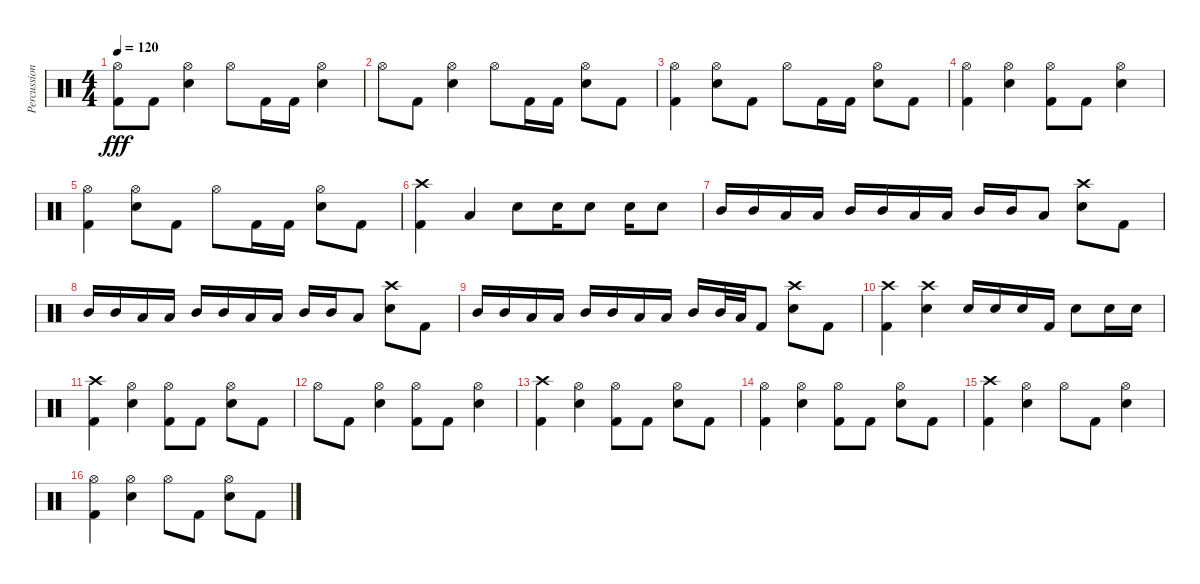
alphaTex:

\track ("Percussion" "Percussion") {instrument percussion}
\staff {score}
\articulation defaults
\ts (4 4)
\tempo 120
\clef neutral
\ks c
("Hi-Hat (open)" "Kick (hit) 2").8{dy fff} "Kick (hit) 2".8 ("Hi-Hat (open)" "Snare (hit) 2").4 "Hi-Hat (open)".8 "Kick (hit) 2".16 "Kick (hit) 2".16 ("Hi-Hat (open)" "Snare (hit) 2").4 |
"Hi-Hat (open)".8 "Kick (hit) 2".8 ("Hi-Hat (open)" "Snare (hit) 2").4 "Hi-Hat (open)".8 "Kick (hit) 2".16 "Kick (hit) 2".16 ("Hi-Hat (open)" "Snare (hit) 2").8 "Kick (hit) 2".8 |
("Hi-Hat (open)" "Kick (hit) 2").4 ("Hi-Hat (open)" "Snare (hit) 2").8 "Kick (hit) 2".8 "Hi-Hat (open)".8 "Kick (hit) 2".16 "Kick (hit) 2".16 ("Hi-Hat (open)" "Snare (hit) 2").8 "Kick (hit) 2".8 |
("Hi-Hat (open)" "Kick (hit) 2").4 ("Hi-Hat (open)" "Snare (hit) 2").4 ("Hi-Hat (open)" "Kick (hit) 2").8 "Kick (hit) 2".8 ("Hi-Hat (open)" "Snare (hit) 2").4 |
("Hi-Hat (open)" "Kick (hit) 2").4 ("Hi-Hat (open)" "Snare (hit) 2").8 "Kick (hit) 2".8 "Hi-Hat (open)".8 "Kick (hit) 2".16 "Kick (hit) 2".16 ("Hi-Hat (open)" "Snare (hit) 2").8 "Kick (hit) 2".8 |
("Crash high (hit)" "Kick (hit) 2").4 "Low Tom (hit)".4 "Snare (hit) 2".8 "Snare (hit) 2".16 "Snare (hit) 2".8 "Snare (hit) 2".16 "Snare (hit) 2".8 |
"Mid Tom (hit)".16 "Mid Tom (hit)".16 "Low Tom (hit)".16 "Low Tom (hit)".16 "Mid Tom (hit)".16 "Mid Tom (hit)".16 "Low Tom (hit)".16 "Low Tom (hit)".16 "Mid Tom (hit)".16 "Mid Tom (hit)".16 "Low Tom (hit)".8 ("Crash high (hit)" "Snare (hit) 2").8 "Kick (hit) 2".8 |
"Mid Tom (hit)".16 "Mid Tom (hit)".16 "Low Tom (hit)".16 "Low Tom (hit)".16 "Mid Tom (hit)".16 "Mid Tom (hit)".16 "Low Tom (hit)".16 "Low Tom (hit)".16 "Mid Tom (hit)".16 "Mid Tom (hit)".16 "Low Tom (hit)".8 ("Crash high (hit)" "Snare (hit) 2").8 "Kick (hit) 2".8 |
"Mid Tom (hit)".16 "Mid Tom (hit)".16 "Low Tom (hit)".16 "Low Tom (hit)".16 "Mid Tom (hit)".16 "Mid Tom (hit)".16 "Low Tom (hit)".16 "Low Tom (hit)".16 "Mid Tom (hit)".16 "Mid Tom (hit)".32 "Low Tom (hit)".32 "Kick (hit) 2".8 ("Crash high (hit)" "Snare (hit) 2").8 "Kick (hit) 2".8 |
("Crash high (hit)" "Kick (hit) 2").4 ("Crash high (hit)" "Snare (hit) 2").4 "Snare (hit) 2".16 "Snare (hit) 2".16 "Snare (hit) 2".16 "Kick (hit) 2".16 "Snare (hit) 2".8 "Snare (hit) 2".16 "Snare (hit) 2".16 |
("Crash high (hit)" "Kick (hit) 2").4 ("Hi-Hat (open)" "Snare (hit) 2").4 ("Hi-Hat (open)" "Kick (hit) 2").8 "Kick (hit) 2".8 ("Hi-Hat (open)" "Snare (hit) 2").8 "Kick (hit) 2".8 |
"Hi-Hat (open)".8 "Kick (hit) 2".8 ("Hi-Hat (open)" "Snare (hit) 2").4 ("Hi-Hat (open)" "Kick (hit) 2").8 "Kick (hit) 2".8 ("Hi-Hat (open)" "Snare (hit) 2").4 |
("Crash high (hit)" "Kick (hit) 2").4 ("Hi-Hat (open)" "Snare (hit) 2").4 ("Hi-Hat (open)" "Kick (hit) 2").8 "Kick (hit) 2".8 ("Hi-Hat (open)" "Snare (hit) 2").8 "Kick (hit) 2".8 |
("Hi-Hat (open)" "Kick (hit) 2").4 ("Hi-Hat (open)" "Snare (hit) 2").4 ("Hi-Hat (open)" "Kick (hit) 2").8 "Kick (hit) 2".8 ("Hi-Hat (open)" "Snare (hit) 2").8 "Kick (hit) 2".8 |
("Crash high (hit)" "Kick (hit) 2").4 ("Hi-Hat (open)" "Snare (hit) 2").4 "Hi-Hat (open)".8 "Kick (hit) 2".8 ("Hi-Hat (open)" "Snare (hit) 2").4 |
("Hi-Hat (open)" "Kick (hit) 2").4 ("Hi-Hat (open)" "Snare (hit) 2").4 "Hi-Hat (open)".8 "Kick (hit) 2".8 ("Hi-Hat (open)" "Snare (hit) 2").8 "Kick (hit) 2".8
